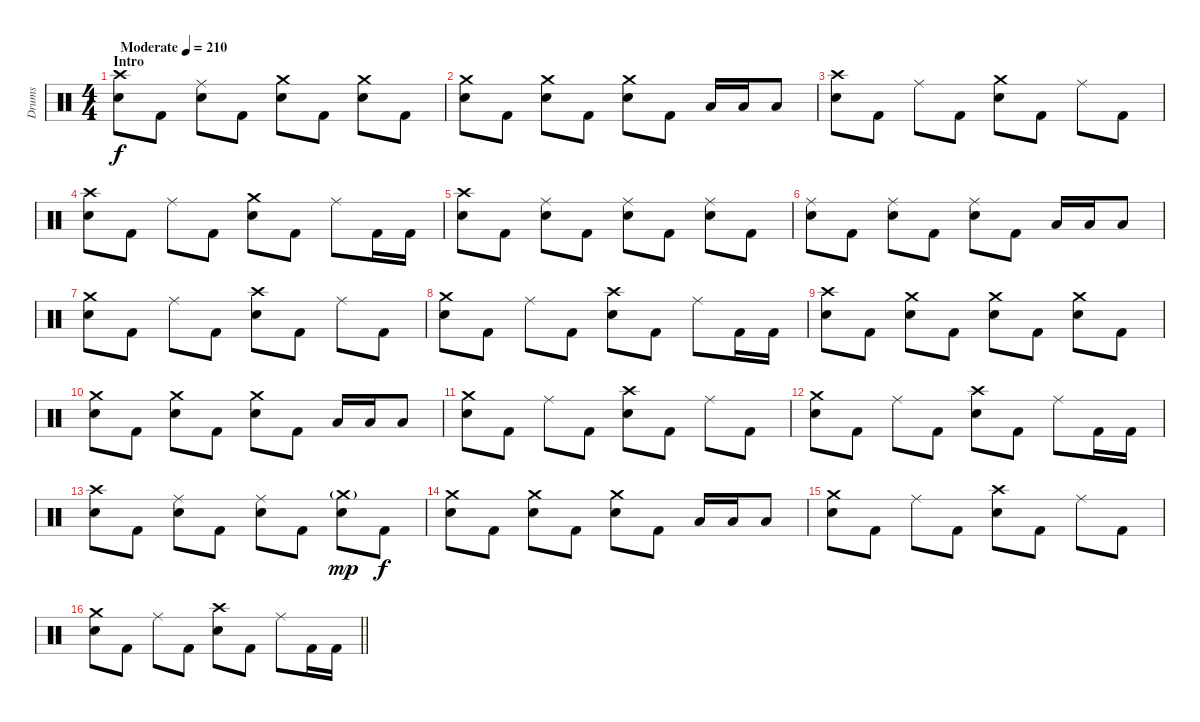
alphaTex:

\track ("Drums" "Drums") {instrument percussion}
\staff {score}
\articulation defaults
\ts (4 4)
\section ("" "Intro")
\tempo (210 "Moderate")
\clef neutral
\ks c
("Crash high (hit)" "Electric Snare (hit)").8{dy f} "Kick (hit) 2".8 ("Ride (middle)" "Electric Snare (hit)").8 "Kick (hit) 2".8 ("Crash medium (hit)" "Electric Snare (hit)").8 "Kick (hit) 2".8 ("Crash medium (hit)" "Electric Snare (hit)").8 "Kick (hit) 2".8 |
("Crash medium (hit)" "Electric Snare (hit)").8 "Kick (hit) 2".8 ("Crash medium (hit)" "Electric Snare (hit)").8 "Kick (hit) 2".8 ("Crash medium (hit)" "Electric Snare (hit)").8 "Kick (hit) 2".8 "Low Tom (hit)".16 "Low Tom (hit)".16 "Low Tom (hit)".8 |
("Crash high (hit)" "Electric Snare (hit)").8 "Kick (hit) 2".8 "Ride (middle)".8 "Kick (hit) 2".8 ("Crash medium (hit)" "Electric Snare (hit)").8 "Kick (hit) 2".8 "Ride (middle)".8 "Kick (hit) 2".8 |
("Crash high (hit)" "Electric Snare (hit)").8 "Kick (hit) 2".8 "Ride (middle)".8 "Kick (hit) 2".8 ("Crash medium (hit)" "Electric Snare (hit)").8 "Kick (hit) 2".8 "Ride (middle)".8 "Kick (hit) 2".16 "Kick (hit) 2".16 |
("Crash high (hit)" "Electric Snare (hit)").8 "Kick (hit) 2".8 ("Ride (middle)" "Electric Snare (hit)").8 "Kick (hit) 2".8 ("Ride (middle)" "Electric Snare (hit)").8 "Kick (hit) 2".8 ("Ride (middle)" "Electric Snare (hit)").8 "Kick (hit) 2".8 |
("Ride (middle)" "Electric Snare (hit)").8 "Kick (hit) 2".8 ("Ride (middle)" "Electric Snare (hit)").8 "Kick (hit) 2".8 ("Ride (middle)" "Electric Snare (hit)").8 "Kick (hit) 2".8 "Low Floor Tom (hit)".16 "Low Floor Tom (hit)".16 "Low Floor Tom (hit)".8 |
("Crash medium (hit)" "Electric Snare (hit)").8 "Kick (hit) 2".8 "Ride (middle)".8 "Kick (hit) 2".8 ("Crash high (hit)" "Electric Snare (hit)").8 "Kick (hit) 2".8 "Ride (middle)".8 "Kick (hit) 2".8 |
("Crash medium (hit)" "Electric Snare (hit)").8 "Kick (hit) 2".8 "Ride (middle)".8 "Kick (hit) 2".8 ("Crash high (hit)" "Electric Snare (hit)").8 "Kick (hit) 2".8 "Ride (middle)".8 "Kick (hit) 2".16 "Kick (hit) 2".16 |
("Crash high (hit)" "Electric Snare (hit)").8 "Kick (hit) 2".8 ("Crash medium (hit)" "Electric Snare (hit)").8 "Kick (hit) 2".8 ("Crash medium (hit)" "Electric Snare (hit)").8 "Kick (hit) 2".8 ("Crash medium (hit)" "Electric Snare (hit)").8 "Kick (hit) 2".8 |
("Crash medium (hit)" "Electric Snare (hit)").8 "Kick (hit) 2".8 ("Crash medium (hit)" "Electric Snare (hit)").8 "Kick (hit) 2".8 ("Crash medium (hit)" "Electric Snare (hit)").8 "Kick (hit) 2".8 "Low Tom (hit)".16 "Low Tom (hit)".16 "Low Tom (hit)".8 |
("Crash medium (hit)" "Electric Snare (hit)").8 "Kick (hit) 2".8 "Ride (middle)".8 "Kick (hit) 2".8 ("Crash high (hit)" "Electric Snare (hit)").8 "Kick (hit) 2".8 "Ride (middle)".8 "Kick (hit) 2".8 |
("Crash medium (hit)" "Electric Snare (hit)").8 "Kick (hit) 2".8 "Ride (middle)".8 "Kick (hit) 2".8 ("Crash high (hit)" "Electric Snare (hit)").8 "Kick (hit) 2".8 "Ride (middle)".8 "Kick (hit) 2".16 "Kick (hit) 2".16 |
("Crash high (hit)" "Electric Snare (hit)").8 "Kick (hit) 2".8 ("Ride (middle)" "Electric Snare (hit)").8 "Kick (hit) 2".8 ("Ride (middle)" "Electric Snare (hit)").8 "Kick (hit) 2".8 ("Crash medium (hit)"{g} "Electric Snare (hit)").8{dy mp} "Kick (hit) 2".8{dy f} |
("Crash medium (hit)" "Electric Snare (hit)").8 "Kick (hit) 2".8 ("Crash medium (hit)" "Electric Snare (hit)").8 "Kick (hit) 2".8 ("Crash medium (hit)" "Electric Snare (hit)").8 "Kick (hit) 2".8 "Low Floor Tom (hit)".16 "Low Floor Tom (hit)".16 "Low Floor Tom (hit)".8 |
("Crash medium (hit)" "Electric Snare (hit)").8 "Kick (hit) 2".8 "Ride (middle)".8 "Kick (hit) 2".8 ("Crash high (hit)" "Electric Snare (hit)").8 "Kick (hit) 2".8 "Ride (middle)".8 "Kick (hit) 2".8 |
\barLineRight lightlight
("Crash medium (hit)" "Electric Snare (hit)").8 "Kick (hit) 2".8 "Ride (middle)".8 "Kick (hit) 2".8 ("Crash high (hit)" "Electric Snare (hit)").8 "Kick (hit) 2".8 "Ride (middle)".8 "Kick (hit) 2".16 "Kick (hit) 2".16
